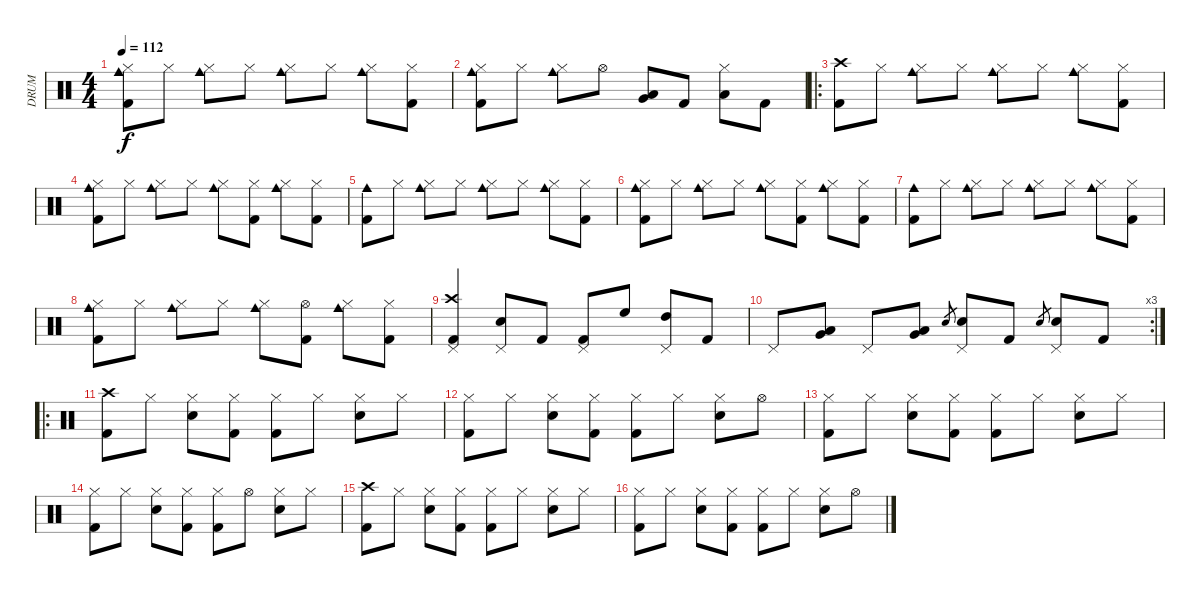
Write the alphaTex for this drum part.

\track ("DRUM" "DRUM") {instrument percussion}
\staff {score}
\articulation defaults
\ts (4 4)
\tempo 112
\clef neutral
\ks c
("Cowbell medium (hit)" "Hi-Hat (closed)" "Kick (hit) 2").8{dy f} "Hi-Hat (closed)".8 ("Cowbell medium (hit)" "Hi-Hat (closed)").8 "Hi-Hat (closed)".8 ("Cowbell medium (hit)" "Hi-Hat (closed)").8 "Hi-Hat (closed)".8 ("Cowbell medium (hit)" "Hi-Hat (closed)").8 ("Hi-Hat (closed)" "Kick (hit) 2").8 |
("Cowbell medium (hit)" "Hi-Hat (closed)" "Kick (hit) 2").8 "Hi-Hat (closed)".8 ("Cowbell medium (hit)" "Hi-Hat (closed)").8 "Hi-Hat (open)".8 ("Low Tom (hit)" "Very Low Tom (hit)").8 "Kick (hit) 2".8 ("Hi-Hat (closed)" "Low Floor Tom (hit)").8 "Kick (hit) 2".8 |
\ro
("Crash high (hit)" "Kick (hit) 2").8 "Hi-Hat (closed)".8 ("Cowbell medium (hit)" "Hi-Hat (closed)").8 "Hi-Hat (closed)".8 ("Cowbell medium (hit)" "Hi-Hat (closed)").8 "Hi-Hat (closed)".8 ("Cowbell medium (hit)" "Hi-Hat (closed)").8 ("Hi-Hat (closed)" "Kick (hit) 2").8 |
("Cowbell medium (hit)" "Hi-Hat (closed)" "Kick (hit) 2").8 "Hi-Hat (closed)".8 ("Cowbell medium (hit)" "Hi-Hat (closed)").8 "Hi-Hat (closed)".8 ("Cowbell medium (hit)" "Hi-Hat (closed)").8 ("Hi-Hat (closed)" "Kick (hit) 2").8 ("Cowbell medium (hit)" "Hi-Hat (closed)").8 ("Hi-Hat (closed)" "Kick (hit) 2").8 |
("Cowbell medium (hit)" "Kick (hit) 2").8 "Hi-Hat (closed)".8 ("Cowbell medium (hit)" "Hi-Hat (closed)").8 "Hi-Hat (closed)".8 ("Cowbell medium (hit)" "Hi-Hat (closed)").8 "Hi-Hat (closed)".8 ("Cowbell medium (hit)" "Hi-Hat (closed)").8 ("Hi-Hat (closed)" "Kick (hit) 2").8 |
("Cowbell medium (hit)" "Hi-Hat (closed)" "Kick (hit) 2").8 "Hi-Hat (closed)".8 ("Cowbell medium (hit)" "Hi-Hat (closed)").8 "Hi-Hat (closed)".8 ("Cowbell medium (hit)" "Hi-Hat (closed)").8 ("Hi-Hat (closed)" "Kick (hit) 2").8 ("Cowbell medium (hit)" "Hi-Hat (closed)").8 ("Hi-Hat (closed)" "Kick (hit) 2").8 |
("Cowbell medium (hit)" "Kick (hit) 2").8 "Hi-Hat (closed)".8 ("Cowbell medium (hit)" "Hi-Hat (closed)").8 "Hi-Hat (closed)".8 ("Cowbell medium (hit)" "Hi-Hat (closed)").8 "Hi-Hat (closed)".8 ("Cowbell medium (hit)" "Hi-Hat (closed)").8 ("Hi-Hat (closed)" "Kick (hit) 2").8 |
("Cowbell medium (hit)" "Hi-Hat (closed)" "Kick (hit) 2").8 "Hi-Hat (closed)".8 ("Cowbell medium (hit)" "Hi-Hat (closed)").8 "Hi-Hat (closed)".8 ("Cowbell medium (hit)" "Hi-Hat (closed)").8 ("Hi-Hat (open)" "Kick (hit) 2").8 ("Cowbell medium (hit)" "Hi-Hat (closed)").8 ("Hi-Hat (closed)" "Kick (hit) 2").8 |
("Crash high (hit)" "Pedal Hi-Hat (hit)" "Kick (hit) 2").4 ("Snare (hit) 2" "Pedal Hi-Hat (hit)").8 "Kick (hit) 2".8 ("Pedal Hi-Hat (hit)" "Kick (hit) 2").8 "High Floor Tom (hit)".8 ("High Tom (hit)" "Pedal Hi-Hat (hit)").8 "Kick (hit) 2".8 |
\rc 3 "Pedal Hi-Hat (hit)".8
("Low Tom (hit)" "Very Low Tom (hit)").8 "Pedal Hi-Hat (hit)".8 ("Very Low Tom (hit)" "Low Floor Tom (hit)").8 "Snare (hit) 2".8{gr} ("Snare (hit) 2" "Pedal Hi-Hat (hit)").8 "Kick (hit) 2".8 "Snare (hit) 2".8{gr} ("Snare (hit) 2" "Pedal Hi-Hat (hit)").8 "Kick (hit) 2".8 |
\ro
("Crash high (hit)" "Kick (hit) 2").8 "Hi-Hat (closed)".8 ("Snare (hit) 2" "Hi-Hat (closed)").8 ("Hi-Hat (closed)" "Kick (hit) 2").8 ("Hi-Hat (closed)" "Kick (hit) 2").8 "Hi-Hat (closed)".8 ("Snare (hit) 2" "Hi-Hat (closed)").8 "Hi-Hat (closed)".8 |
("Hi-Hat (closed)" "Kick (hit) 2").8 "Hi-Hat (closed)".8 ("Snare (hit) 2" "Hi-Hat (closed)").8 ("Hi-Hat (closed)" "Kick (hit) 2").8 ("Hi-Hat (closed)" "Kick (hit) 2").8 "Hi-Hat (closed)".8 ("Snare (hit) 2" "Hi-Hat (closed)").8 "Hi-Hat (open)".8 |
("Hi-Hat (closed)" "Kick (hit) 2").8 "Hi-Hat (closed)".8 ("Snare (hit) 2" "Hi-Hat (closed)").8 ("Hi-Hat (closed)" "Kick (hit) 2").8 ("Hi-Hat (closed)" "Kick (hit) 2").8 "Hi-Hat (closed)".8 ("Snare (hit) 2" "Hi-Hat (closed)").8 "Hi-Hat (closed)".8 |
("Hi-Hat (closed)" "Kick (hit) 2").8 "Hi-Hat (closed)".8 ("Snare (hit) 2" "Hi-Hat (closed)").8 ("Hi-Hat (closed)" "Kick (hit) 2").8 ("Hi-Hat (closed)" "Kick (hit) 2").8 "Hi-Hat (open)".8 ("Snare (hit) 2" "Hi-Hat (closed)").8 "Hi-Hat (closed)".8 |
("Crash high (hit)" "Kick (hit) 2").8 "Hi-Hat (closed)".8 ("Snare (hit) 2" "Hi-Hat (closed)").8 ("Hi-Hat (closed)" "Kick (hit) 2").8 ("Hi-Hat (closed)" "Kick (hit) 2").8 "Hi-Hat (closed)".8 ("Snare (hit) 2" "Hi-Hat (closed)").8 "Hi-Hat (closed)".8 |
("Hi-Hat (closed)" "Kick (hit) 2").8 "Hi-Hat (closed)".8 ("Snare (hit) 2" "Hi-Hat (closed)").8 ("Hi-Hat (closed)" "Kick (hit) 2").8 ("Hi-Hat (closed)" "Kick (hit) 2").8 "Hi-Hat (closed)".8 ("Snare (hit) 2" "Hi-Hat (closed)").8 "Hi-Hat (open)".8
